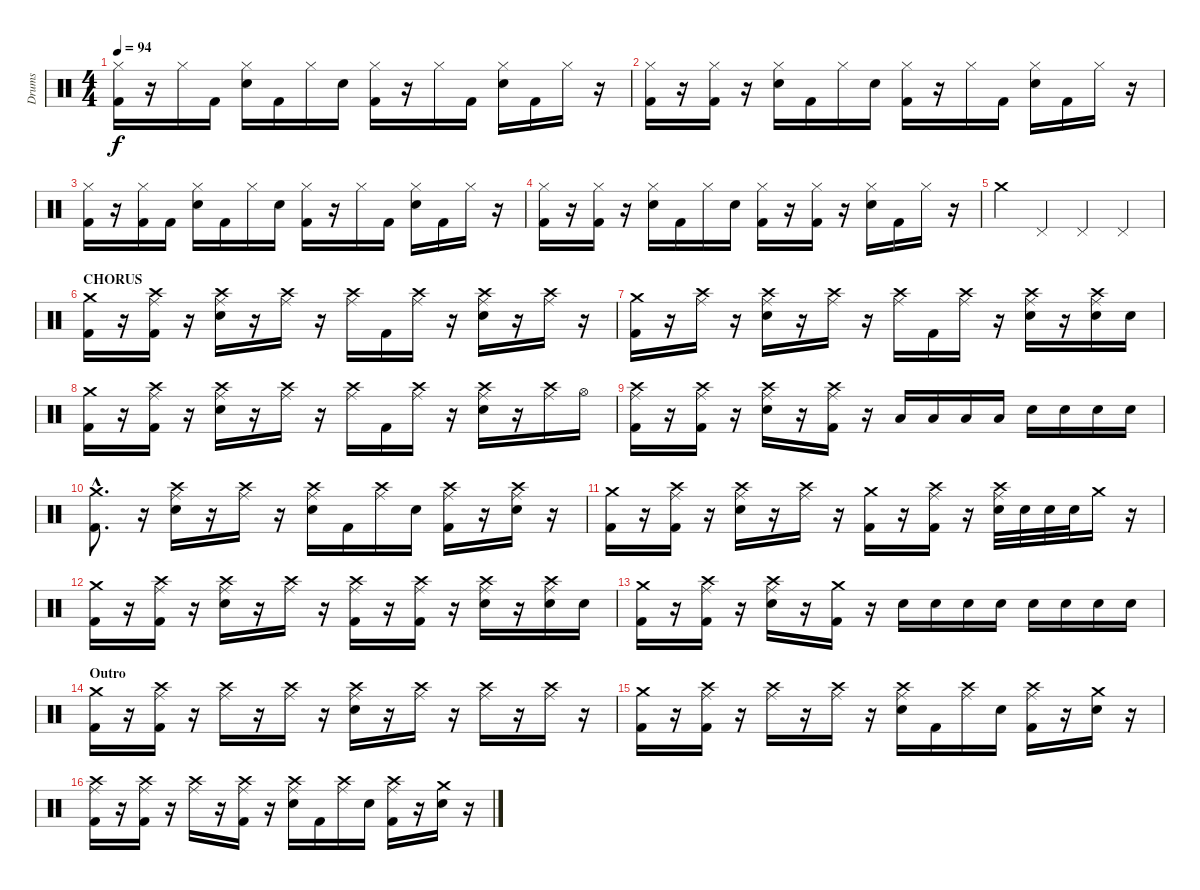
\track ("Drums" "Drums") {instrument percussion}
\staff {score}
\articulation defaults
\ts (4 4)
\tempo 94
\clef neutral
\ks c
("Hi-Hat (closed)" "Kick (hit) 2").16{dy f} r.16 "Hi-Hat (closed)".16 "Kick (hit) 2".16 ("Hi-Hat (closed)" "Electric Snare (hit)").16 "Kick (hit) 2".16 "Hi-Hat (closed)".16 "Electric Snare (hit)".16 ("Hi-Hat (closed)" "Kick (hit) 2").16 r.16 "Hi-Hat (closed)".16 "Kick (hit) 2".16 ("Hi-Hat (closed)" "Electric Snare (hit)").16 "Kick (hit) 2".16 "Hi-Hat (closed)".16 r.16 |
("Hi-Hat (closed)" "Kick (hit) 2").16 r.16 ("Hi-Hat (closed)" "Kick (hit) 2").16 r.16 ("Hi-Hat (closed)" "Electric Snare (hit)").16 "Kick (hit) 2".16 "Hi-Hat (closed)".16 "Electric Snare (hit)".16 ("Hi-Hat (closed)" "Kick (hit) 2").16 r.16 "Hi-Hat (closed)".16 "Kick (hit) 2".16 ("Hi-Hat (closed)" "Electric Snare (hit)").16 "Kick (hit) 2".16 "Hi-Hat (closed)".16 r.16 |
("Hi-Hat (closed)" "Kick (hit) 2").16 r.16 ("Hi-Hat (closed)" "Kick (hit) 2").16 "Kick (hit) 2".16 ("Hi-Hat (closed)" "Electric Snare (hit)").16 "Kick (hit) 2".16 "Hi-Hat (closed)".16 "Electric Snare (hit)".16 ("Hi-Hat (closed)" "Kick (hit) 2").16 r.16 "Hi-Hat (closed)".16 "Kick (hit) 2".16 ("Hi-Hat (closed)" "Electric Snare (hit)").16 "Kick (hit) 2".16 "Hi-Hat (closed)".16 r.16 |
("Hi-Hat (closed)" "Kick (hit) 2").16 r.16 ("Hi-Hat (closed)" "Kick (hit) 2").16 r.16 ("Hi-Hat (closed)" "Electric Snare (hit)").16 "Kick (hit) 2".16 "Hi-Hat (closed)".16 "Electric Snare (hit)".16 ("Hi-Hat (closed)" "Kick (hit) 2").16 r.16 ("Hi-Hat (closed)" "Kick (hit) 2").16 r.16 ("Hi-Hat (closed)" "Electric Snare (hit)").16 "Kick (hit) 2".16 "Hi-Hat (closed)".16 r.16 |
"Crash medium (hit)".4 "Pedal Hi-Hat (hit)".4 "Pedal Hi-Hat (hit)".4 "Pedal Hi-Hat (hit)".4 |
\section ("" "CHORUS")
("Crash medium (hit)" "Kick (hit) 2").16 r.16 ("Ride (middle)" "Crash high (hit)" "Kick (hit) 2").16 r.16 ("Ride (middle)" "Crash high (hit)" "Electric Snare (hit)").16 r.16 ("Ride (middle)" "Crash high (hit)").16 r.16 ("Ride (middle)" "Crash high (hit)").16 "Kick (hit) 2".16 ("Ride (middle)" "Crash high (hit)").16 r.16 ("Ride (middle)" "Crash high (hit)" "Electric Snare (hit)").16 r.16 ("Ride (middle)" "Crash high (hit)").16 r.16 |
("Crash medium (hit)" "Kick (hit) 2").16 r.16 ("Ride (middle)" "Crash high (hit)").16 r.16 ("Ride (middle)" "Crash high (hit)" "Electric Snare (hit)").16 r.16 ("Ride (middle)" "Crash high (hit)").16 r.16 ("Ride (middle)" "Crash high (hit)").16 "Kick (hit) 2".16 ("Ride (middle)" "Crash high (hit)").16 r.16 ("Ride (middle)" "Crash high (hit)" "Electric Snare (hit)").16 r.16 ("Ride (middle)" "Crash high (hit)" "Electric Snare (hit)").16 "Electric Snare (hit)".16 |
("Crash medium (hit)" "Kick (hit) 2").16 r.16 ("Ride (middle)" "Crash high (hit)" "Kick (hit) 2").16 r.16 ("Ride (middle)" "Crash high (hit)" "Electric Snare (hit)").16 r.16 ("Ride (middle)" "Crash high (hit)").16 r.16 ("Ride (middle)" "Crash high (hit)").16 "Kick (hit) 2".16 ("Ride (middle)" "Crash high (hit)").16 r.16 ("Ride (middle)" "Crash high (hit)" "Electric Snare (hit)").16 r.16 ("Ride (middle)" "Crash high (hit)").16 "Hi-Hat (open)".16 |
("Ride (middle)" "Crash high (hit)" "Kick (hit) 2").16 r.16 ("Ride (middle)" "Crash high (hit)" "Kick (hit) 2").16 r.16 ("Ride (middle)" "Crash high (hit)" "Electric Snare (hit)").16 r.16 ("Ride (middle)" "Crash high (hit)" "Kick (hit) 2").16 r.16 "Low Floor Tom (hit)".16 "Low Floor Tom (hit)".16 "Low Floor Tom (hit)".16 "Low Floor Tom (hit)".16 "Electric Snare (hit)".16 "Electric Snare (hit)".16 "Electric Snare (hit)".16 "Electric Snare (hit)".16 |
("Crash medium (hit)"{hac} "Kick (hit) 2"{hac}).8{d} r.16 ("Ride (middle)" "Crash high (hit)" "Electric Snare (hit)").16 r.16 ("Ride (middle)" "Crash high (hit)").16 r.16 ("Ride (middle)" "Crash high (hit)" "Electric Snare (hit)").16 "Kick (hit) 2".16 ("Ride (middle)" "Crash high (hit)").16 "Electric Snare (hit)".16 ("Ride (middle)" "Crash high (hit)" "Kick (hit) 2").16 r.16 ("Ride (middle)" "Crash high (hit)" "Electric Snare (hit)").16 r.16 |
("Crash medium (hit)" "Kick (hit) 2").16 r.16 ("Ride (middle)" "Crash high (hit)" "Kick (hit) 2").16 r.16 ("Ride (middle)" "Crash high (hit)" "Electric Snare (hit)").16 r.16 ("Ride (middle)" "Crash high (hit)").16 r.16 ("Crash medium (hit)" "Kick (hit) 2").16 r.16 ("Ride (middle)" "Crash high (hit)" "Kick (hit) 2").16 r.16 ("Ride (middle)" "Crash high (hit)" "Electric Snare (hit)").32 "Electric Snare (hit)".32 "Electric Snare (hit)".32 "Electric Snare (hit)".32 "Crash medium (hit)".16 r.16 |
("Crash medium (hit)" "Kick (hit) 2").16 r.16 ("Ride (middle)" "Crash high (hit)" "Kick (hit) 2").16 r.16 ("Ride (middle)" "Crash high (hit)" "Electric Snare (hit)").16 r.16 ("Ride (middle)" "Crash high (hit)").16 r.16 ("Ride (middle)" "Crash high (hit)" "Kick (hit) 2").16 r.16 ("Ride (middle)" "Crash high (hit)" "Kick (hit) 2").16 r.16 ("Ride (middle)" "Crash high (hit)" "Electric Snare (hit)").16 r.16 ("Ride (middle)" "Crash high (hit)" "Electric Snare (hit)").16 "Electric Snare (hit)".16 |
("Crash medium (hit)" "Kick (hit) 2").16 r.16 ("Ride (middle)" "Crash high (hit)" "Kick (hit) 2").16 r.16 ("Ride (middle)" "Crash high (hit)" "Electric Snare (hit)").16 r.16 ("Crash medium (hit)" "Kick (hit) 2").16 r.16 "Electric Snare (hit)".16 "Electric Snare (hit)".16 "Electric Snare (hit)".16 "Electric Snare (hit)".16 "Electric Snare (hit)".16 "Electric Snare (hit)".16 "Electric Snare (hit)".16 "Electric Snare (hit)".16 |
\section ("" "Outro")
("Crash medium (hit)" "Kick (hit) 2").16 r.16 ("Ride (middle)" "Crash high (hit)" "Kick (hit) 2").16 r.16 ("Ride (middle)" "Crash high (hit)").16 r.16 ("Ride (middle)" "Crash high (hit)").16 r.16 ("Ride (middle)" "Crash high (hit)" "Electric Snare (hit)").16 r.16 ("Ride (middle)" "Crash high (hit)").16 r.16 ("Ride (middle)" "Crash high (hit)").16 r.16 ("Ride (middle)" "Crash high (hit)").16 r.16 |
("Crash medium (hit)" "Kick (hit) 2").16 r.16 ("Ride (middle)" "Crash high (hit)" "Kick (hit) 2").16 r.16 ("Ride (middle)" "Crash high (hit)").16 r.16 ("Ride (middle)" "Crash high (hit)").16 r.16 ("Ride (middle)" "Crash high (hit)" "Electric Snare (hit)").16 "Kick (hit) 2".16 ("Ride (middle)" "Crash high (hit)").16 "Electric Snare (hit)".16 ("Ride (middle)" "Crash high (hit)" "Kick (hit) 2").16 r.16 ("Crash medium (hit)" "Electric Snare (hit)").16 r.16 |
("Ride (middle)" "Crash high (hit)" "Kick (hit) 2").16 r.16 ("Ride (middle)" "Crash high (hit)" "Kick (hit) 2").16 r.16 ("Ride (middle)" "Crash high (hit)").16 r.16 ("Ride (middle)" "Crash high (hit)" "Kick (hit) 2").16 r.16 ("Ride (middle)" "Crash high (hit)" "Electric Snare (hit)").16 "Kick (hit) 2".16 ("Ride (middle)" "Crash high (hit)").16 "Electric Snare (hit)".16 ("Ride (middle)" "Crash high (hit)" "Kick (hit) 2").16 r.16 ("Crash medium (hit)" "Electric Snare (hit)").16 r.16
